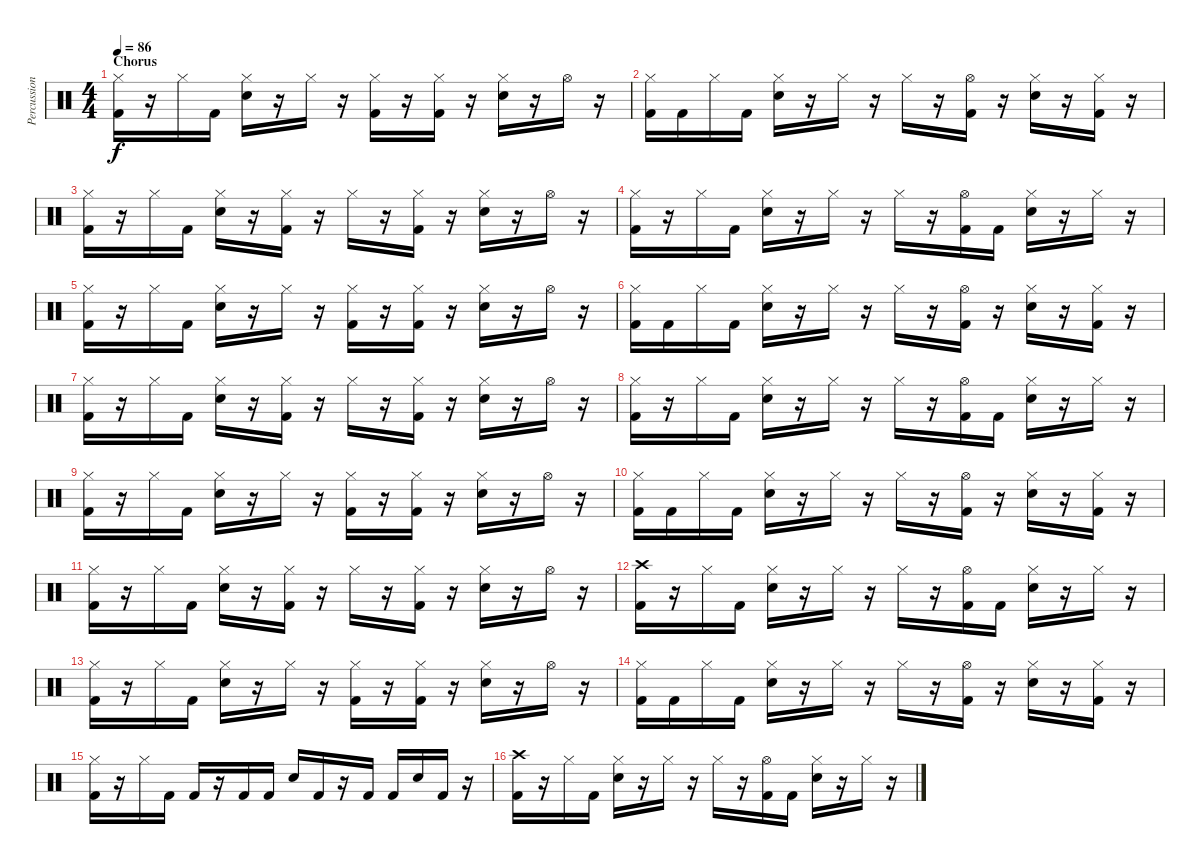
\track ("Percussions" "Percussion") {instrument percussion}
\staff {score}
\articulation defaults
\ts (4 4)
\section ("" "Chorus")
\tempo 86
\clef neutral
\ks c
("Hi-Hat (closed)" "Kick (hit) 2").16{dy f} r.16 "Hi-Hat (closed)".16 "Kick (hit) 2".16 ("Hi-Hat (closed)" "Snare (hit) 2").16 r.16 "Hi-Hat (closed)".16 r.16 ("Hi-Hat (closed)" "Kick (hit) 2").16 r.16 ("Hi-Hat (closed)" "Kick (hit) 2").16 r.16 ("Hi-Hat (closed)" "Snare (hit) 2").16 r.16 "Hi-Hat (open)".16 r.16 |
("Hi-Hat (closed)" "Kick (hit) 2").16 "Kick (hit) 2".16 "Hi-Hat (closed)".16 "Kick (hit) 2".16 ("Hi-Hat (closed)" "Snare (hit) 2").16 r.16 "Hi-Hat (closed)".16 r.16 "Hi-Hat (closed)".16 r.16 ("Hi-Hat (open)" "Kick (hit) 2").16 r.16 ("Hi-Hat (closed)" "Snare (hit) 2").16 r.16 ("Hi-Hat (closed)" "Kick (hit) 2").16 r.16 |
("Hi-Hat (closed)" "Kick (hit) 2").16 r.16 "Hi-Hat (closed)".16 "Kick (hit) 2".16 ("Hi-Hat (closed)" "Snare (hit) 2").16 r.16 ("Hi-Hat (closed)" "Kick (hit) 2").16 r.16 "Hi-Hat (closed)".16 r.16 ("Hi-Hat (closed)" "Kick (hit) 2").16 r.16 ("Hi-Hat (closed)" "Snare (hit) 2").16 r.16 "Hi-Hat (open)".16 r.16 |
("Hi-Hat (closed)" "Kick (hit) 2").16 r.16 "Hi-Hat (closed)".16 "Kick (hit) 2".16 ("Hi-Hat (closed)" "Snare (hit) 2").16 r.16 "Hi-Hat (closed)".16 r.16 "Hi-Hat (closed)".16 r.16 ("Hi-Hat (open)" "Kick (hit) 2").16 "Kick (hit) 2".16 ("Hi-Hat (closed)" "Snare (hit) 2").16 r.16 "Hi-Hat (closed)".16 r.16 |
("Hi-Hat (closed)" "Kick (hit) 2").16 r.16 "Hi-Hat (closed)".16 "Kick (hit) 2".16 ("Hi-Hat (closed)" "Snare (hit) 2").16 r.16 "Hi-Hat (closed)".16 r.16 ("Hi-Hat (closed)" "Kick (hit) 2").16 r.16 ("Hi-Hat (closed)" "Kick (hit) 2").16 r.16 ("Hi-Hat (closed)" "Snare (hit) 2").16 r.16 "Hi-Hat (open)".16 r.16 |
("Hi-Hat (closed)" "Kick (hit) 2").16 "Kick (hit) 2".16 "Hi-Hat (closed)".16 "Kick (hit) 2".16 ("Hi-Hat (closed)" "Snare (hit) 2").16 r.16 "Hi-Hat (closed)".16 r.16 "Hi-Hat (closed)".16 r.16 ("Hi-Hat (open)" "Kick (hit) 2").16 r.16 ("Hi-Hat (closed)" "Snare (hit) 2").16 r.16 ("Hi-Hat (closed)" "Kick (hit) 2").16 r.16 |
("Hi-Hat (closed)" "Kick (hit) 2").16 r.16 "Hi-Hat (closed)".16 "Kick (hit) 2".16 ("Hi-Hat (closed)" "Snare (hit) 2").16 r.16 ("Hi-Hat (closed)" "Kick (hit) 2").16 r.16 "Hi-Hat (closed)".16 r.16 ("Hi-Hat (closed)" "Kick (hit) 2").16 r.16 ("Hi-Hat (closed)" "Snare (hit) 2").16 r.16 "Hi-Hat (open)".16 r.16 |
("Hi-Hat (closed)" "Kick (hit) 2").16 r.16 "Hi-Hat (closed)".16 "Kick (hit) 2".16 ("Hi-Hat (closed)" "Snare (hit) 2").16 r.16 "Hi-Hat (closed)".16 r.16 "Hi-Hat (closed)".16 r.16 ("Hi-Hat (open)" "Kick (hit) 2").16 "Kick (hit) 2".16 ("Hi-Hat (closed)" "Snare (hit) 2").16 r.16 "Hi-Hat (closed)".16 r.16 |
("Hi-Hat (closed)" "Kick (hit) 2").16 r.16 "Hi-Hat (closed)".16 "Kick (hit) 2".16 ("Hi-Hat (closed)" "Snare (hit) 2").16 r.16 "Hi-Hat (closed)".16 r.16 ("Hi-Hat (closed)" "Kick (hit) 2").16 r.16 ("Hi-Hat (closed)" "Kick (hit) 2").16 r.16 ("Hi-Hat (closed)" "Snare (hit) 2").16 r.16 "Hi-Hat (open)".16 r.16 |
("Hi-Hat (closed)" "Kick (hit) 2").16 "Kick (hit) 2".16 "Hi-Hat (closed)".16 "Kick (hit) 2".16 ("Hi-Hat (closed)" "Snare (hit) 2").16 r.16 "Hi-Hat (closed)".16 r.16 "Hi-Hat (closed)".16 r.16 ("Hi-Hat (open)" "Kick (hit) 2").16 r.16 ("Hi-Hat (closed)" "Snare (hit) 2").16 r.16 ("Hi-Hat (closed)" "Kick (hit) 2").16 r.16 |
("Hi-Hat (closed)" "Kick (hit) 2").16 r.16 "Hi-Hat (closed)".16 "Kick (hit) 2".16 ("Hi-Hat (closed)" "Snare (hit) 2").16 r.16 ("Hi-Hat (closed)" "Kick (hit) 2").16 r.16 "Hi-Hat (closed)".16 r.16 ("Hi-Hat (closed)" "Kick (hit) 2").16 r.16 ("Hi-Hat (closed)" "Snare (hit) 2").16 r.16 "Hi-Hat (open)".16 r.16 |
("Crash high (hit)" "Kick (hit) 2").16 r.16 "Hi-Hat (closed)".16 "Kick (hit) 2".16 ("Hi-Hat (closed)" "Snare (hit) 2").16 r.16 "Hi-Hat (closed)".16 r.16 "Hi-Hat (closed)".16 r.16 ("Hi-Hat (open)" "Kick (hit) 2").16 "Kick (hit) 2".16 ("Hi-Hat (closed)" "Snare (hit) 2").16 r.16 "Hi-Hat (closed)".16 r.16 |
("Hi-Hat (closed)" "Kick (hit) 2").16 r.16 "Hi-Hat (closed)".16 "Kick (hit) 2".16 ("Hi-Hat (closed)" "Snare (hit) 2").16 r.16 "Hi-Hat (closed)".16 r.16 ("Hi-Hat (closed)" "Kick (hit) 2").16 r.16 ("Hi-Hat (closed)" "Kick (hit) 2").16 r.16 ("Hi-Hat (closed)" "Snare (hit) 2").16 r.16 "Hi-Hat (open)".16 r.16 |
("Hi-Hat (closed)" "Kick (hit) 2").16 "Kick (hit) 2".16 "Hi-Hat (closed)".16 "Kick (hit) 2".16 ("Hi-Hat (closed)" "Snare (hit) 2").16 r.16 "Hi-Hat (closed)".16 r.16 "Hi-Hat (closed)".16 r.16 ("Hi-Hat (open)" "Kick (hit) 2").16 r.16 ("Hi-Hat (closed)" "Snare (hit) 2").16 r.16 ("Hi-Hat (closed)" "Kick (hit) 2").16 r.16 |
("Hi-Hat (closed)" "Kick (hit) 2").16 r.16 "Hi-Hat (closed)".16 "Kick (hit) 2".16 "Kick (hit) 2".16 r.16 "Kick (hit) 2".16 "Kick (hit) 2".16 "Snare (hit) 2".16 "Kick (hit) 2".16 r.16 "Kick (hit) 2".16 "Kick (hit) 2".16 "Snare (hit) 2".16 "Kick (hit) 2".16 r.16 |
("Crash high (hit)" "Kick (hit) 2").16 r.16 "Hi-Hat (closed)".16 "Kick (hit) 2".16 ("Hi-Hat (closed)" "Snare (hit) 2").16 r.16 "Hi-Hat (closed)".16 r.16 "Hi-Hat (closed)".16 r.16 ("Hi-Hat (open)" "Kick (hit) 2").16 "Kick (hit) 2".16 ("Hi-Hat (closed)" "Snare (hit) 2").16 r.16 "Hi-Hat (closed)".16 r.16
